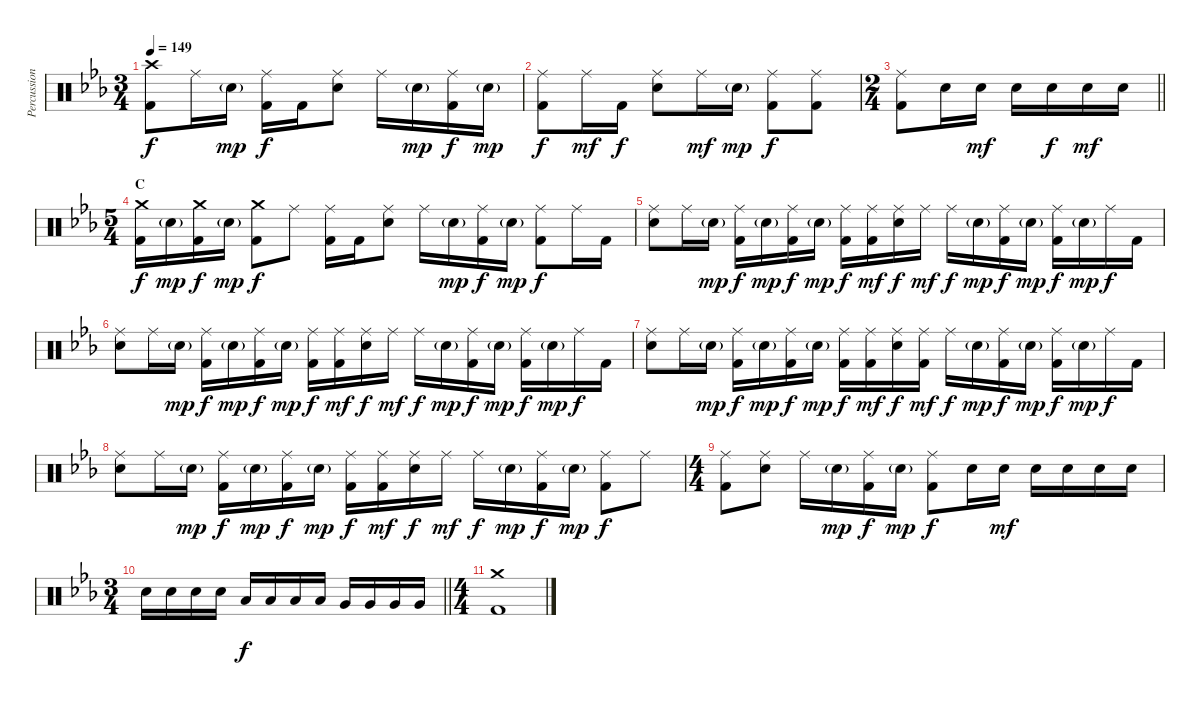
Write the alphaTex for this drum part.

\track ("Percussion" "Percussion") {instrument percussion}
\staff {score}
\articulation defaults
\ts (3 4)
\tempo 149
\clef neutral
\ks cminor
("Crash high (hit)" "Kick (hit) 2").8{dy f} "Ride (middle)".16 "Snare (hit) 2"{g}.16{dy mp} ("Ride (middle)" "Kick (hit) 2").16{dy f} "Kick (hit) 2".16 ("Ride (middle)" "Snare (hit) 2").8 "Ride (middle)".16 "Snare (hit) 2"{g}.16{dy mp} ("Ride (middle)" "Kick (hit) 2").16{dy f} "Snare (hit) 2"{g}.16{dy mp} |
("Ride (middle)" "Kick (hit) 2").8{dy f} "Ride (middle)".16{dy mf} "Kick (hit) 2".16{dy f} ("Ride (middle)" "Snare (hit) 2").8 "Ride (middle)".16{dy mf} "Snare (hit) 2"{g}.16{dy mp} ("Ride (middle)" "Kick (hit) 2").8{dy f} ("Ride (middle)" "Kick (hit) 2").8 |
\ts (2 4)
\barLineRight lightlight
("Ride (middle)" "Kick (hit) 2").8 "Snare (hit) 2".16 "Snare (hit) 2".16{dy mf} "Snare (hit) 2".16 "Snare (hit) 2".16{dy f} "Snare (hit) 2".16{dy mf} "Snare (hit) 2".16 |
\ts (5 4)
\section ("" "C")
("Crash medium (hit)" "Kick (hit) 2").16{dy f} "Snare (hit) 2"{g}.16{dy mp} ("Crash medium (hit)" "Kick (hit) 2").16{dy f} "Snare (hit) 2"{g}.16{dy mp} ("Crash medium (hit)" "Kick (hit) 2").8{dy f} "Ride (middle)".8 ("Ride (middle)" "Kick (hit) 2").16 "Kick (hit) 2".16 ("Ride (middle)" "Snare (hit) 2").8 "Ride (middle)".16 "Snare (hit) 2"{g}.16{dy mp} ("Ride (middle)" "Kick (hit) 2").16{dy f} "Snare (hit) 2"{g}.16{dy mp} ("Ride (middle)" "Kick (hit) 2").8{dy f} "Ride (middle)".16 "Kick (hit) 2".16 |
("Ride (middle)" "Snare (hit) 2").8 "Ride (middle)".16 "Snare (hit) 2"{g}.16{dy mp} ("Ride (middle)" "Kick (hit) 2").16{dy f} "Snare (hit) 2"{g}.16{dy mp} ("Ride (middle)" "Kick (hit) 2").16{dy f} "Snare (hit) 2"{g}.16{dy mp} ("Ride (middle)" "Kick (hit) 2").16{dy f} ("Ride (middle)" "Kick (hit) 2").16{dy mf} ("Ride (middle)" "Snare (hit) 2").16{dy f} "Ride (middle)".16{dy mf} "Ride (middle)".16{dy f} "Snare (hit) 2"{g}.16{dy mp} ("Ride (middle)" "Kick (hit) 2").16{dy f} "Snare (hit) 2"{g}.16{dy mp} ("Ride (middle)" "Kick (hit) 2").16{dy f} "Snare (hit) 2"{g}.16{dy mp} "Ride (middle)".16{dy f} "Kick (hit) 2".16 |
("Ride (middle)" "Snare (hit) 2").8 "Ride (middle)".16 "Snare (hit) 2"{g}.16{dy mp} ("Ride (middle)" "Kick (hit) 2").16{dy f} "Snare (hit) 2"{g}.16{dy mp} ("Ride (middle)" "Kick (hit) 2").16{dy f} "Snare (hit) 2"{g}.16{dy mp} ("Ride (middle)" "Kick (hit) 2").16{dy f} ("Ride (middle)" "Kick (hit) 2").16{dy mf} ("Ride (middle)" "Snare (hit) 2").16{dy f} "Ride (middle)".16{dy mf} "Ride (middle)".16{dy f} "Snare (hit) 2"{g}.16{dy mp} ("Ride (middle)" "Kick (hit) 2").16{dy f} "Snare (hit) 2"{g}.16{dy mp} ("Ride (middle)" "Kick (hit) 2").16{dy f} "Snare (hit) 2"{g}.16{dy mp} "Ride (middle)".16{dy f} "Kick (hit) 2".16 |
("Ride (middle)" "Snare (hit) 2").8 "Ride (middle)".16 "Snare (hit) 2"{g}.16{dy mp} ("Ride (middle)" "Kick (hit) 2").16{dy f} "Snare (hit) 2"{g}.16{dy mp} ("Ride (middle)" "Kick (hit) 2").16{dy f} "Snare (hit) 2"{g}.16{dy mp} ("Ride (middle)" "Kick (hit) 2").16{dy f} ("Ride (middle)" "Kick (hit) 2").16{dy mf} ("Ride (middle)" "Snare (hit) 2").16{dy f} ("Ride (middle)" "Kick (hit) 2").16{dy mf} "Ride (middle)".16{dy f} "Snare (hit) 2"{g}.16{dy mp} ("Ride (middle)" "Kick (hit) 2").16{dy f} "Snare (hit) 2"{g}.16{dy mp} ("Ride (middle)" "Kick (hit) 2").16{dy f} "Snare (hit) 2"{g}.16{dy mp} "Ride (middle)".16{dy f} "Kick (hit) 2".16 |
("Ride (middle)" "Snare (hit) 2").8 "Ride (middle)".16 "Snare (hit) 2"{g}.16{dy mp} ("Ride (middle)" "Kick (hit) 2").16{dy f} "Snare (hit) 2"{g}.16{dy mp} ("Ride (middle)" "Kick (hit) 2").16{dy f} "Snare (hit) 2"{g}.16{dy mp} ("Ride (middle)" "Kick (hit) 2").16{dy f} ("Ride (middle)" "Kick (hit) 2").16{dy mf} ("Ride (middle)" "Snare (hit) 2").16{dy f} "Ride (middle)".16{dy mf} "Ride (middle)".16{dy f} "Snare (hit) 2"{g}.16{dy mp} ("Ride (middle)" "Kick (hit) 2").16{dy f} "Snare (hit) 2"{g}.16{dy mp} ("Ride (middle)" "Kick (hit) 2").8{dy f} "Ride (middle)".8 |
\ts (4 4)
("Ride (middle)" "Kick (hit) 2").8 ("Ride (middle)" "Snare (hit) 2").8 "Ride (middle)".16 "Snare (hit) 2"{g}.16{dy mp} ("Ride (middle)" "Kick (hit) 2").16{dy f} "Snare (hit) 2"{g}.16{dy mp} ("Ride (middle)" "Kick (hit) 2").8{dy f} "Snare (hit) 2".16 "Snare (hit) 2".16{dy mf} "Snare (hit) 2".16 "Snare (hit) 2".16 "Snare (hit) 2".16 "Snare (hit) 2".16 |
\ts (3 4)
\barLineRight lightlight "Snare (hit) 2".16 "Snare (hit) 2".16 "Snare (hit) 2".16 "Snare (hit) 2".16 "Low Tom (hit)".16{dy f} "Low Tom (hit)".16 "Low Tom (hit)".16 "Low Tom (hit)".16 "Very Low Tom (hit)".16 "Very Low Tom (hit)".16 "Very Low Tom (hit)".16 "Very Low Tom (hit)".16
|
\ts (4 4)
("Crash medium (hit)" "Kick (hit) 2").1
